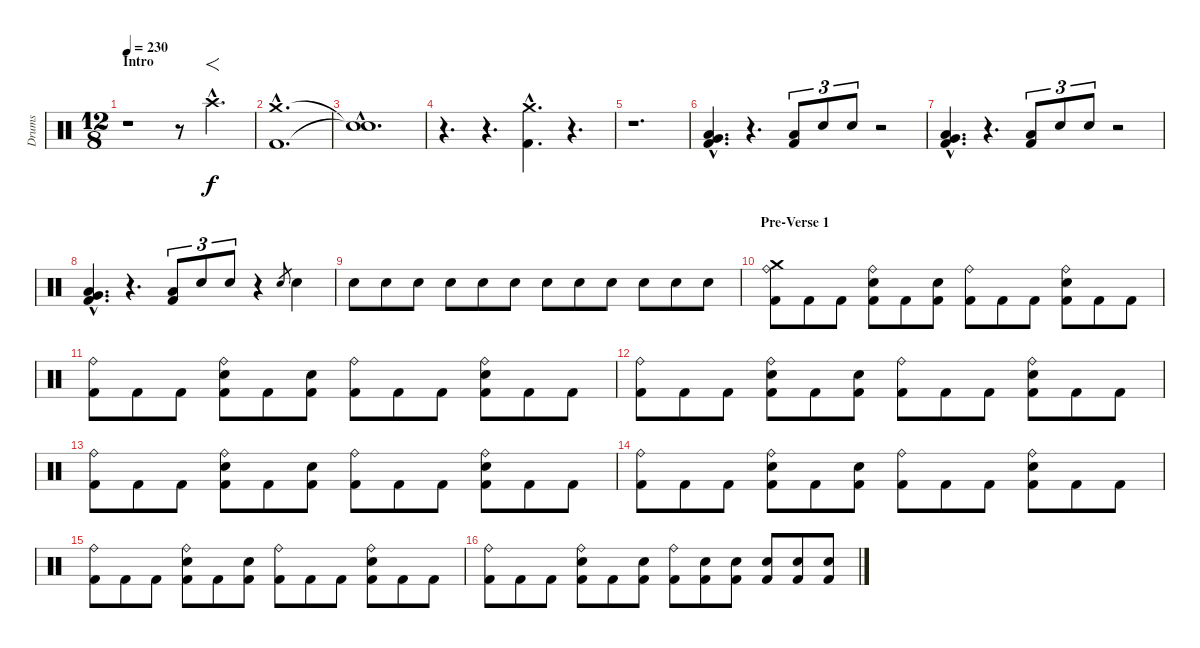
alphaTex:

\track ("Drums" "Drums") {instrument percussion}
\staff {score}
\articulation defaults
\ts (12 8)
\section ("" "Intro")
\tempo 230
\clef neutral
\ks c
r.1{dy f} r.8 "Crash high (hit)"{hac}.4{f d} |
("Crash medium (hit)"{hac} "Kick (hit) 2"{hac}).1{d} |
("Snare (hit)"{hac t} "Snare (hit)"{hac t}).1{d} |
r.4{d} r.4{d} ("Crash medium (hit)"{hac} "Kick (hit) 2"{hac}).4{d} r.4{d} |
r.1{d} |
("Very Low Tom (hit)"{hac} "Low Floor Tom (hit)"{hac} "Kick (hit) 2"{hac}).4{d} r.4{d} ("Low Floor Tom (hit)" "Kick (hit) 2").8{tu (3 2)} "Snare (hit) 2".8{tu (3 2)} "Snare (hit) 2".8{tu (3 2)} r.2 |
("Very Low Tom (hit)"{hac} "Low Floor Tom (hit)"{hac} "Kick (hit) 2"{hac}).4{d} r.4{d} ("Low Floor Tom (hit)" "Kick (hit) 2").8{tu (3 2)} "Snare (hit) 2".8{tu (3 2)} "Snare (hit) 2".8{tu (3 2)} r.2 |
("Very Low Tom (hit)"{hac} "Low Floor Tom (hit)"{hac} "Kick (hit) 2"{hac}).4{d} r.4{d} ("Low Floor Tom (hit)" "Kick (hit) 2").8{tu (3 2)} "Snare (hit) 2".8{tu (3 2)} "Snare (hit) 2".8{tu (3 2)} r.4 "Snare (hit) 2".8{gr} "Snare (hit) 2".4 |
"Snare (hit) 2".8 "Snare (hit) 2".8 "Snare (hit) 2".8 "Snare (hit) 2".8 "Snare (hit) 2".8 "Snare (hit) 2".8 "Snare (hit) 2".8 "Snare (hit) 2".8 "Snare (hit) 2".8 "Snare (hit) 2".8 "Snare (hit) 2".8 "Snare (hit) 2".8 |
\section ("" "Pre-Verse 1")
("Crash medium (hit)" "Ride (bell)" "Kick (hit) 2").8 "Kick (hit) 2".8 "Kick (hit) 2".8 ("Ride (bell)" "Snare (hit) 2" "Kick (hit) 2").8 "Kick (hit) 2".8 ("Snare (hit) 2" "Kick (hit) 2").8 ("Ride (bell)" "Kick (hit) 2").8 "Kick (hit) 2".8 "Kick (hit) 2".8 ("Ride (bell)" "Snare (hit) 2" "Kick (hit) 2").8 "Kick (hit) 2".8 "Kick (hit) 2".8 |
("Ride (bell)" "Kick (hit) 2").8 "Kick (hit) 2".8 "Kick (hit) 2".8 ("Ride (bell)" "Snare (hit) 2" "Kick (hit) 2").8 "Kick (hit) 2".8 ("Snare (hit) 2" "Kick (hit) 2").8 ("Ride (bell)" "Kick (hit) 2").8 "Kick (hit) 2".8 "Kick (hit) 2".8 ("Ride (bell)" "Snare (hit) 2" "Kick (hit) 2").8 "Kick (hit) 2".8 "Kick (hit) 2".8 |
("Ride (bell)" "Kick (hit) 2").8 "Kick (hit) 2".8 "Kick (hit) 2".8 ("Ride (bell)" "Snare (hit) 2" "Kick (hit) 2").8 "Kick (hit) 2".8 ("Snare (hit) 2" "Kick (hit) 2").8 ("Ride (bell)" "Kick (hit) 2").8 "Kick (hit) 2".8 "Kick (hit) 2".8 ("Ride (bell)" "Snare (hit) 2" "Kick (hit) 2").8 "Kick (hit) 2".8 "Kick (hit) 2".8 |
("Ride (bell)" "Kick (hit) 2").8 "Kick (hit) 2".8 "Kick (hit) 2".8 ("Ride (bell)" "Snare (hit) 2" "Kick (hit) 2").8 "Kick (hit) 2".8 ("Snare (hit) 2" "Kick (hit) 2").8 ("Ride (bell)" "Kick (hit) 2").8 "Kick (hit) 2".8 "Kick (hit) 2".8 ("Ride (bell)" "Snare (hit) 2" "Kick (hit) 2").8 "Kick (hit) 2".8 "Kick (hit) 2".8 |
("Ride (bell)" "Kick (hit) 2").8 "Kick (hit) 2".8 "Kick (hit) 2".8 ("Ride (bell)" "Snare (hit) 2" "Kick (hit) 2").8 "Kick (hit) 2".8 ("Snare (hit) 2" "Kick (hit) 2").8 ("Ride (bell)" "Kick (hit) 2").8 "Kick (hit) 2".8 "Kick (hit) 2".8 ("Ride (bell)" "Snare (hit) 2" "Kick (hit) 2").8 "Kick (hit) 2".8 "Kick (hit) 2".8 |
("Ride (bell)" "Kick (hit) 2").8 "Kick (hit) 2".8 "Kick (hit) 2".8 ("Ride (bell)" "Snare (hit) 2" "Kick (hit) 2").8 "Kick (hit) 2".8 ("Snare (hit) 2" "Kick (hit) 2").8 ("Ride (bell)" "Kick (hit) 2").8 "Kick (hit) 2".8 "Kick (hit) 2".8 ("Ride (bell)" "Snare (hit) 2" "Kick (hit) 2").8 "Kick (hit) 2".8 "Kick (hit) 2".8 |
("Ride (bell)" "Kick (hit) 2").8 "Kick (hit) 2".8 "Kick (hit) 2".8 ("Ride (bell)" "Snare (hit) 2" "Kick (hit) 2").8 "Kick (hit) 2".8 ("Snare (hit) 2" "Kick (hit) 2").8 ("Ride (bell)" "Kick (hit) 2").8 ("Snare (hit) 2" "Kick (hit) 2").8 ("Snare (hit) 2" "Kick (hit) 2").8 ("Snare (hit) 2" "Kick (hit) 2").8 ("Snare (hit) 2" "Kick (hit) 2").8 ("Snare (hit) 2" "Kick (hit) 2").8
